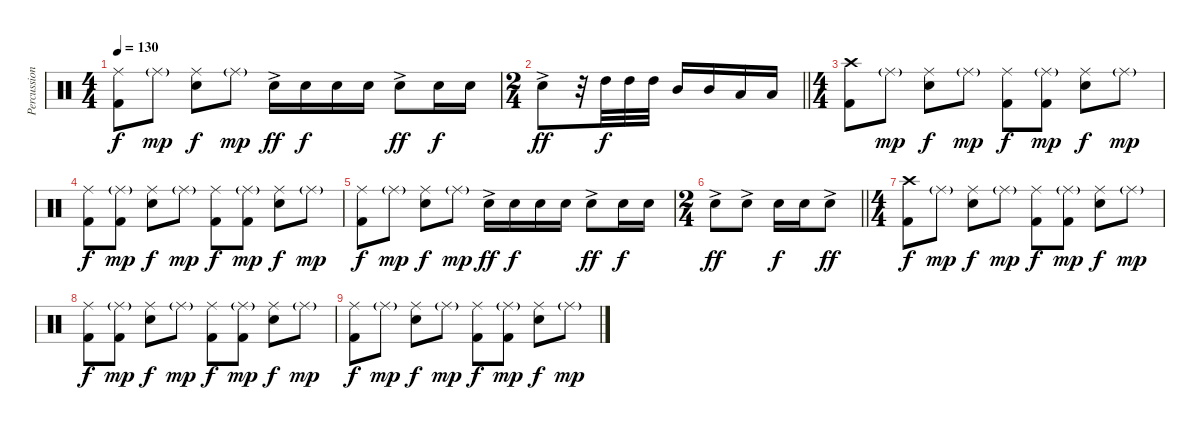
\track ("Percussion" "Percussion") {instrument percussion}
\staff {score}
\articulation defaults
\ts (4 4)
\tempo 130
\clef neutral
\ks c
("Ride (middle)" "Kick (hit) 2").8{dy f} "Ride (middle)"{g}.8{dy mp} ("Ride (middle)" "Snare (hit) 2").8{dy f} "Ride (middle)"{g}.8{dy mp} "Electric Snare (hit)"{ac}.16{dy ff} "Electric Snare (hit)".16{dy f} "Electric Snare (hit)".16 "Electric Snare (hit)".16 "Electric Snare (hit)"{ac}.8{dy ff} "Electric Snare (hit)".16{dy f} "Electric Snare (hit)".16 |
\ts (2 4)
\barLineRight lightlight "Electric Snare (hit)"{ac}.8{dy ff}
r.32 "High Tom (hit)".32{dy f} "High Tom (hit)".32 "High Tom (hit)".32 "Mid Tom (hit)".16 "Mid Tom (hit)".16 "Low Tom (hit)".16 "Low Tom (hit)".16 |
\ts (4 4)
("Crash high (hit)" "Kick (hit) 2").8 "Ride (middle)"{g}.8{dy mp} ("Ride (middle)" "Snare (hit) 2").8{dy f} "Ride (middle)"{g}.8{dy mp} ("Ride (middle)" "Kick (hit) 2").8{dy f} ("Ride (middle)"{g} "Kick (hit) 2").8{dy mp} ("Ride (middle)" "Snare (hit) 2").8{dy f} "Ride (middle)"{g}.8{dy mp} |
("Ride (middle)" "Kick (hit) 2").8{dy f} ("Ride (middle)"{g} "Kick (hit) 2").8{dy mp} ("Ride (middle)" "Snare (hit) 2").8{dy f} "Ride (middle)"{g}.8{dy mp} ("Ride (middle)" "Kick (hit) 2").8{dy f} ("Ride (middle)"{g} "Kick (hit) 2").8{dy mp} ("Ride (middle)" "Snare (hit) 2").8{dy f} "Ride (middle)"{g}.8{dy mp} |
("Ride (middle)" "Kick (hit) 2").8{dy f} "Ride (middle)"{g}.8{dy mp} ("Ride (middle)" "Snare (hit) 2").8{dy f} "Ride (middle)"{g}.8{dy mp} "Electric Snare (hit)"{ac}.16{dy ff} "Electric Snare (hit)".16{dy f} "Electric Snare (hit)".16 "Electric Snare (hit)".16 "Electric Snare (hit)"{ac}.8{dy ff} "Electric Snare (hit)".16{dy f} "Electric Snare (hit)".16 |
\ts (2 4)
\barLineRight lightlight "Electric Snare (hit)"{ac}.8{dy ff} "Electric Snare (hit)"{ac}.8 "Electric Snare (hit)".16{dy f} "Electric Snare (hit)".16 "Electric Snare (hit)"{ac}.8{dy ff}
|
\ts (4 4)
("Crash high (hit)" "Kick (hit) 2").8{dy f} "Ride (middle)"{g}.8{dy mp} ("Ride (middle)" "Snare (hit) 2").8{dy f} "Ride (middle)"{g}.8{dy mp} ("Ride (middle)" "Kick (hit) 2").8{dy f} ("Ride (middle)"{g} "Kick (hit) 2").8{dy mp} ("Ride (middle)" "Snare (hit) 2").8{dy f} "Ride (middle)"{g}.8{dy mp} |
("Ride (middle)" "Kick (hit) 2").8{dy f} ("Ride (middle)"{g} "Kick (hit) 2").8{dy mp} ("Ride (middle)" "Snare (hit) 2").8{dy f} "Ride (middle)"{g}.8{dy mp} ("Ride (middle)" "Kick (hit) 2").8{dy f} ("Ride (middle)"{g} "Kick (hit) 2").8{dy mp} ("Ride (middle)" "Snare (hit) 2").8{dy f} "Ride (middle)"{g}.8{dy mp} |
("Ride (middle)" "Kick (hit) 2").8{dy f} "Ride (middle)"{g}.8{dy mp} ("Ride (middle)" "Snare (hit) 2").8{dy f} "Ride (middle)"{g}.8{dy mp} ("Ride (middle)" "Kick (hit) 2").8{dy f} ("Ride (middle)"{g} "Kick (hit) 2").8{dy mp} ("Ride (middle)" "Snare (hit) 2").8{dy f} "Ride (middle)"{g}.8{dy mp}
